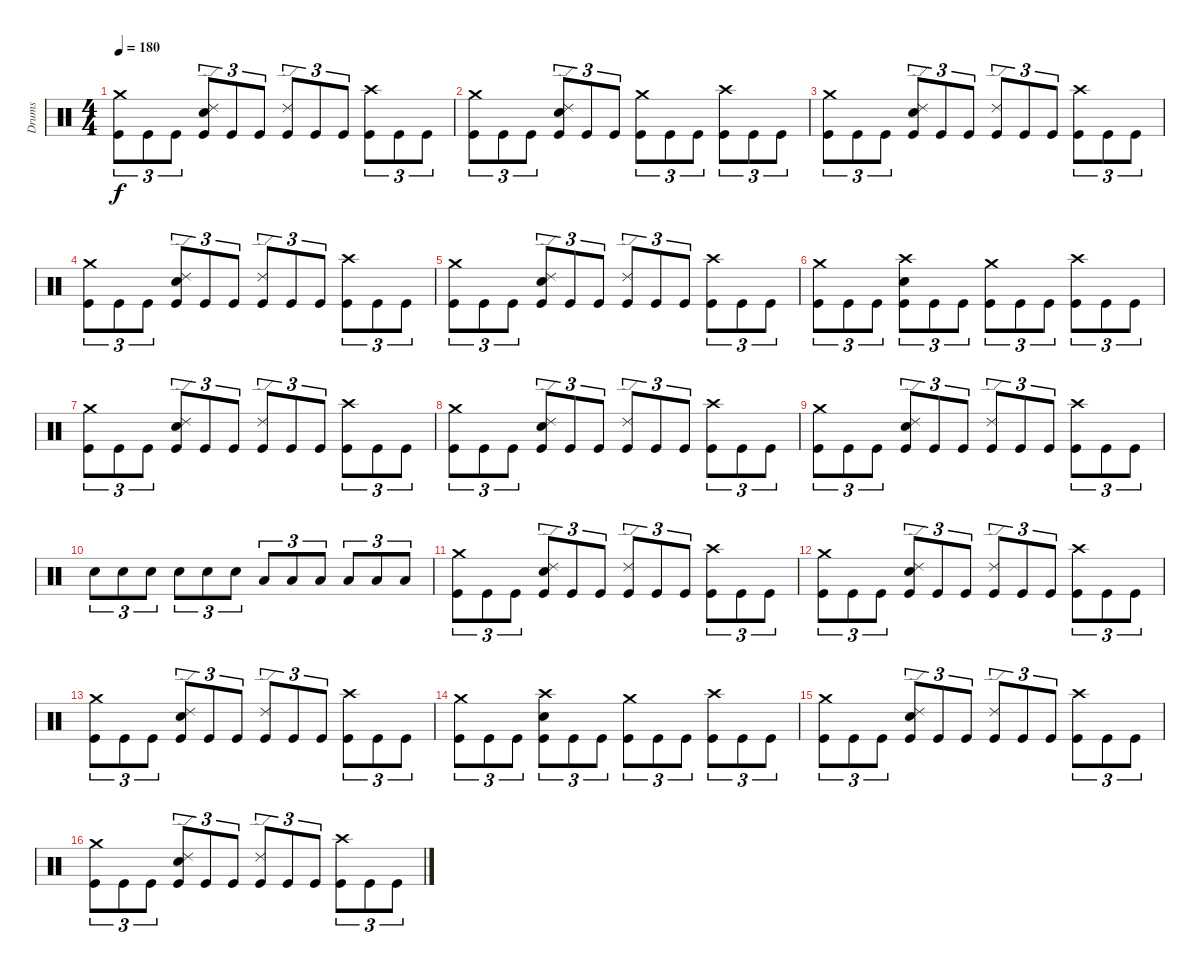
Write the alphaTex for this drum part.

\track ("Drums" "Drums") {instrument percussion}
\staff {score}
\articulation defaults
\ts (4 4)
\tempo 180
\clef neutral
\ks c
("Crash medium (hit)" "Kick (hit)").8{tu (3 2) dy f} "Kick (hit)".8{tu (3 2)} "Kick (hit)".8{tu (3 2)} ("Ride (edge) 2" "Snare (hit) 2" "Kick (hit)").8{tu (3 2)} "Kick (hit)".8{tu (3 2)} "Kick (hit)".8{tu (3 2)} ("Ride (edge) 2" "Kick (hit)").8{tu (3 2)} "Kick (hit)".8{tu (3 2)} "Kick (hit)".8{tu (3 2)} ("Crash high (hit)" "Kick (hit)").8{tu (3 2)} "Kick (hit)".8{tu (3 2)} "Kick (hit)".8{tu (3 2)} |
("Crash medium (hit)" "Kick (hit)").8{tu (3 2)} "Kick (hit)".8{tu (3 2)} "Kick (hit)".8{tu (3 2)} ("Ride (edge) 2" "Snare (hit) 2" "Kick (hit)").8{tu (3 2)} "Kick (hit)".8{tu (3 2)} "Kick (hit)".8{tu (3 2)} ("Crash medium (hit)" "Kick (hit)").8{tu (3 2)} "Kick (hit)".8{tu (3 2)} "Kick (hit)".8{tu (3 2)} ("Crash high (hit)" "Kick (hit)").8{tu (3 2)} "Kick (hit)".8{tu (3 2)} "Kick (hit)".8{tu (3 2)} |
("Crash medium (hit)" "Kick (hit)").8{tu (3 2)} "Kick (hit)".8{tu (3 2)} "Kick (hit)".8{tu (3 2)} ("Ride (edge) 2" "Snare (hit) 2" "Kick (hit)").8{tu (3 2)} "Kick (hit)".8{tu (3 2)} "Kick (hit)".8{tu (3 2)} ("Ride (edge) 2" "Kick (hit)").8{tu (3 2)} "Kick (hit)".8{tu (3 2)} "Kick (hit)".8{tu (3 2)} ("Crash high (hit)" "Kick (hit)").8{tu (3 2)} "Kick (hit)".8{tu (3 2)} "Kick (hit)".8{tu (3 2)} |
("Crash medium (hit)" "Kick (hit)").8{tu (3 2)} "Kick (hit)".8{tu (3 2)} "Kick (hit)".8{tu (3 2)} ("Ride (edge) 2" "Snare (hit) 2" "Kick (hit)").8{tu (3 2)} "Kick (hit)".8{tu (3 2)} "Kick (hit)".8{tu (3 2)} ("Ride (edge) 2" "Kick (hit)").8{tu (3 2)} "Kick (hit)".8{tu (3 2)} "Kick (hit)".8{tu (3 2)} ("Crash high (hit)" "Kick (hit)").8{tu (3 2)} "Kick (hit)".8{tu (3 2)} "Kick (hit)".8{tu (3 2)} |
("Crash medium (hit)" "Kick (hit)").8{tu (3 2)} "Kick (hit)".8{tu (3 2)} "Kick (hit)".8{tu (3 2)} ("Ride (edge) 2" "Snare (hit) 2" "Kick (hit)").8{tu (3 2)} "Kick (hit)".8{tu (3 2)} "Kick (hit)".8{tu (3 2)} ("Ride (edge) 2" "Kick (hit)").8{tu (3 2)} "Kick (hit)".8{tu (3 2)} "Kick (hit)".8{tu (3 2)} ("Crash high (hit)" "Kick (hit)").8{tu (3 2)} "Kick (hit)".8{tu (3 2)} "Kick (hit)".8{tu (3 2)} |
("Crash medium (hit)" "Kick (hit)").8{tu (3 2)} "Kick (hit)".8{tu (3 2)} "Kick (hit)".8{tu (3 2)} ("Crash high (hit)" "Snare (hit) 2" "Kick (hit)").8{tu (3 2)} "Kick (hit)".8{tu (3 2)} "Kick (hit)".8{tu (3 2)} ("Crash medium (hit)" "Kick (hit)").8{tu (3 2)} "Kick (hit)".8{tu (3 2)} "Kick (hit)".8{tu (3 2)} ("Crash high (hit)" "Kick (hit)").8{tu (3 2)} "Kick (hit)".8{tu (3 2)} "Kick (hit)".8{tu (3 2)} |
("Crash medium (hit)" "Kick (hit)").8{tu (3 2)} "Kick (hit)".8{tu (3 2)} "Kick (hit)".8{tu (3 2)} ("Ride (edge) 2" "Snare (hit) 2" "Kick (hit)").8{tu (3 2)} "Kick (hit)".8{tu (3 2)} "Kick (hit)".8{tu (3 2)} ("Ride (edge) 2" "Kick (hit)").8{tu (3 2)} "Kick (hit)".8{tu (3 2)} "Kick (hit)".8{tu (3 2)} ("Crash high (hit)" "Kick (hit)").8{tu (3 2)} "Kick (hit)".8{tu (3 2)} "Kick (hit)".8{tu (3 2)} |
("Crash medium (hit)" "Kick (hit)").8{tu (3 2)} "Kick (hit)".8{tu (3 2)} "Kick (hit)".8{tu (3 2)} ("Ride (edge) 2" "Snare (hit) 2" "Kick (hit)").8{tu (3 2)} "Kick (hit)".8{tu (3 2)} "Kick (hit)".8{tu (3 2)} ("Ride (edge) 2" "Kick (hit)").8{tu (3 2)} "Kick (hit)".8{tu (3 2)} "Kick (hit)".8{tu (3 2)} ("Crash high (hit)" "Kick (hit)").8{tu (3 2)} "Kick (hit)".8{tu (3 2)} "Kick (hit)".8{tu (3 2)} |
("Crash medium (hit)" "Kick (hit)").8{tu (3 2)} "Kick (hit)".8{tu (3 2)} "Kick (hit)".8{tu (3 2)} ("Ride (edge) 2" "Snare (hit) 2" "Kick (hit)").8{tu (3 2)} "Kick (hit)".8{tu (3 2)} "Kick (hit)".8{tu (3 2)} ("Ride (edge) 2" "Kick (hit)").8{tu (3 2)} "Kick (hit)".8{tu (3 2)} "Kick (hit)".8{tu (3 2)} ("Crash high (hit)" "Kick (hit)").8{tu (3 2)} "Kick (hit)".8{tu (3 2)} "Kick (hit)".8{tu (3 2)} |
"Snare (hit) 2".8{tu (3 2)} "Snare (hit) 2".8{tu (3 2)} "Snare (hit) 2".8{tu (3 2)} "Snare (hit) 2".8{tu (3 2)} "Snare (hit) 2".8{tu (3 2)} "Snare (hit) 2".8{tu (3 2)} "Low Tom (hit)".8{tu (3 2)} "Low Tom (hit)".8{tu (3 2)} "Low Tom (hit)".8{tu (3 2)} "Low Tom (hit)".8{tu (3 2)} "Low Tom (hit)".8{tu (3 2)} "Low Tom (hit)".8{tu (3 2)} |
("Crash medium (hit)" "Kick (hit)").8{tu (3 2)} "Kick (hit)".8{tu (3 2)} "Kick (hit)".8{tu (3 2)} ("Ride (edge) 2" "Snare (hit) 2" "Kick (hit)").8{tu (3 2)} "Kick (hit)".8{tu (3 2)} "Kick (hit)".8{tu (3 2)} ("Ride (edge) 2" "Kick (hit)").8{tu (3 2)} "Kick (hit)".8{tu (3 2)} "Kick (hit)".8{tu (3 2)} ("Crash high (hit)" "Kick (hit)").8{tu (3 2)} "Kick (hit)".8{tu (3 2)} "Kick (hit)".8{tu (3 2)} |
("Crash medium (hit)" "Kick (hit)").8{tu (3 2)} "Kick (hit)".8{tu (3 2)} "Kick (hit)".8{tu (3 2)} ("Ride (edge) 2" "Snare (hit) 2" "Kick (hit)").8{tu (3 2)} "Kick (hit)".8{tu (3 2)} "Kick (hit)".8{tu (3 2)} ("Ride (edge) 2" "Kick (hit)").8{tu (3 2)} "Kick (hit)".8{tu (3 2)} "Kick (hit)".8{tu (3 2)} ("Crash high (hit)" "Kick (hit)").8{tu (3 2)} "Kick (hit)".8{tu (3 2)} "Kick (hit)".8{tu (3 2)} |
("Crash medium (hit)" "Kick (hit)").8{tu (3 2)} "Kick (hit)".8{tu (3 2)} "Kick (hit)".8{tu (3 2)} ("Ride (edge) 2" "Snare (hit) 2" "Kick (hit)").8{tu (3 2)} "Kick (hit)".8{tu (3 2)} "Kick (hit)".8{tu (3 2)} ("Ride (edge) 2" "Kick (hit)").8{tu (3 2)} "Kick (hit)".8{tu (3 2)} "Kick (hit)".8{tu (3 2)} ("Crash high (hit)" "Kick (hit)").8{tu (3 2)} "Kick (hit)".8{tu (3 2)} "Kick (hit)".8{tu (3 2)} |
("Crash medium (hit)" "Kick (hit)").8{tu (3 2)} "Kick (hit)".8{tu (3 2)} "Kick (hit)".8{tu (3 2)} ("Crash high (hit)" "Snare (hit) 2" "Kick (hit)").8{tu (3 2)} "Kick (hit)".8{tu (3 2)} "Kick (hit)".8{tu (3 2)} ("Crash medium (hit)" "Kick (hit)").8{tu (3 2)} "Kick (hit)".8{tu (3 2)} "Kick (hit)".8{tu (3 2)} ("Crash high (hit)" "Kick (hit)").8{tu (3 2)} "Kick (hit)".8{tu (3 2)} "Kick (hit)".8{tu (3 2)} |
("Crash medium (hit)" "Kick (hit)").8{tu (3 2)} "Kick (hit)".8{tu (3 2)} "Kick (hit)".8{tu (3 2)} ("Ride (edge) 2" "Snare (hit) 2" "Kick (hit)").8{tu (3 2)} "Kick (hit)".8{tu (3 2)} "Kick (hit)".8{tu (3 2)} ("Ride (edge) 2" "Kick (hit)").8{tu (3 2)} "Kick (hit)".8{tu (3 2)} "Kick (hit)".8{tu (3 2)} ("Crash high (hit)" "Kick (hit)").8{tu (3 2)} "Kick (hit)".8{tu (3 2)} "Kick (hit)".8{tu (3 2)} |
("Crash medium (hit)" "Kick (hit)").8{tu (3 2)} "Kick (hit)".8{tu (3 2)} "Kick (hit)".8{tu (3 2)} ("Ride (edge) 2" "Snare (hit) 2" "Kick (hit)").8{tu (3 2)} "Kick (hit)".8{tu (3 2)} "Kick (hit)".8{tu (3 2)} ("Ride (edge) 2" "Kick (hit)").8{tu (3 2)} "Kick (hit)".8{tu (3 2)} "Kick (hit)".8{tu (3 2)} ("Crash high (hit)" "Kick (hit)").8{tu (3 2)} "Kick (hit)".8{tu (3 2)} "Kick (hit)".8{tu (3 2)}
